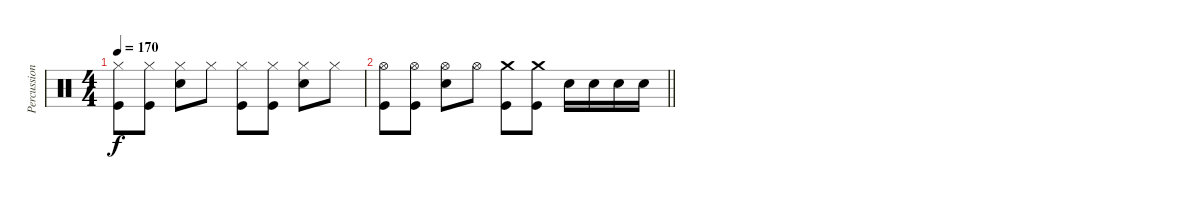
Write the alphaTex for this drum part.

\track ("Percussion" "Percussion") {instrument percussion}
\staff {score}
\articulation defaults
\ts (4 4)
\tempo 170
\clef neutral
\ks c
("Hi-Hat (closed)" "Kick (hit)").8{dy f} ("Hi-Hat (closed)" "Kick (hit)").8 ("Hi-Hat (closed)" "Snare (hit) 2").8 "Hi-Hat (closed)".8 ("Hi-Hat (closed)" "Kick (hit)").8 ("Hi-Hat (closed)" "Kick (hit)").8 ("Hi-Hat (closed)" "Snare (hit) 2").8 "Hi-Hat (closed)".8 |
\barLineRight lightlight
("Hi-Hat (open)" "Kick (hit)").8 ("Hi-Hat (open)" "Kick (hit)").8 ("Hi-Hat (open)" "Snare (hit) 2").8 "Hi-Hat (open)".8 ("Crash medium (hit)" "Kick (hit)").8 ("Crash medium (hit)" "Kick (hit)").8 "Snare (hit) 2".16 "Snare (hit) 2".16 "Snare (hit) 2".16 "Snare (hit) 2".16
